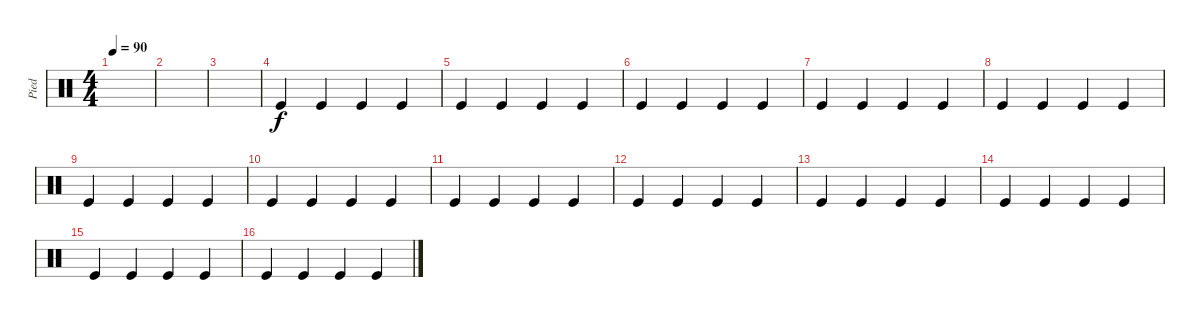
\track ("Pied" "Pied") {instrument percussion}
\staff {score}
\articulation defaults
\ts (4 4)
\tempo 90
\clef neutral
\ks c
|
|
|
"Kick (hit)".4 "Kick (hit)".4 "Kick (hit)".4 "Kick (hit)".4 |
"Kick (hit)".4 "Kick (hit)".4 "Kick (hit)".4 "Kick (hit)".4 |
"Kick (hit)".4 "Kick (hit)".4 "Kick (hit)".4 "Kick (hit)".4 |
"Kick (hit)".4 "Kick (hit)".4 "Kick (hit)".4 "Kick (hit)".4 |
"Kick (hit)".4 "Kick (hit)".4 "Kick (hit)".4 "Kick (hit)".4 |
"Kick (hit)".4 "Kick (hit)".4 "Kick (hit)".4 "Kick (hit)".4 |
"Kick (hit)".4 "Kick (hit)".4 "Kick (hit)".4 "Kick (hit)".4 |
"Kick (hit)".4 "Kick (hit)".4 "Kick (hit)".4 "Kick (hit)".4 |
"Kick (hit)".4 "Kick (hit)".4 "Kick (hit)".4 "Kick (hit)".4 |
"Kick (hit)".4 "Kick (hit)".4 "Kick (hit)".4 "Kick (hit)".4 |
"Kick (hit)".4 "Kick (hit)".4 "Kick (hit)".4 "Kick (hit)".4 |
"Kick (hit)".4 "Kick (hit)".4 "Kick (hit)".4 "Kick (hit)".4 |
"Kick (hit)".4 "Kick (hit)".4 "Kick (hit)".4 "Kick (hit)".4
